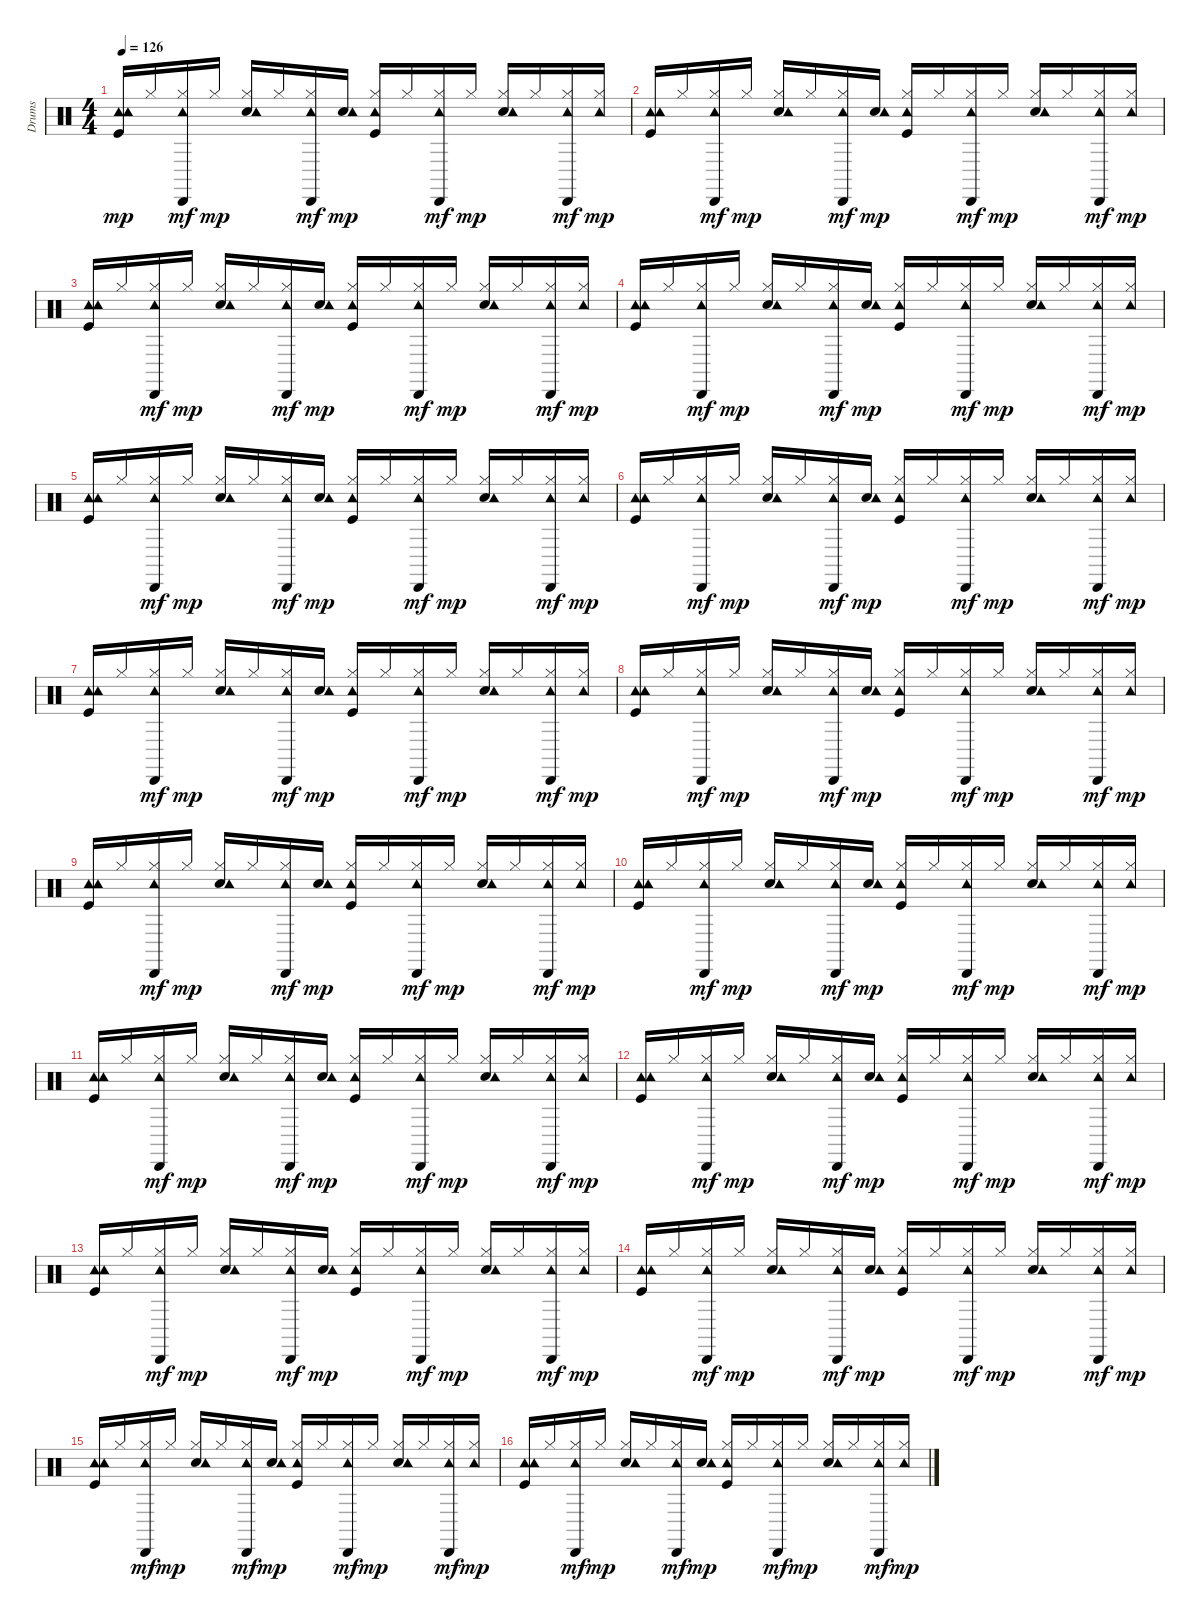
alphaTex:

\track ("Drums" "Drums") {instrument percussion}
\staff {score}
\articulation defaults
\ts (4 4)
\tempo 126
\clef neutral
\ks c
("Kick (hit)" "Tambourine (hit)" "Tambourine (hit)").16{dy mp} "Hi-Hat (closed)".16 ("Hi-Hat (closed)" "Tambourine (hit)" "Cabasa (hit)").16{dy mf} "Hi-Hat (closed)".16{dy mp} ("Snare (hit) 2" "Hi-Hat (closed)" "Tambourine (hit)").16 "Hi-Hat (closed)".16 ("Hi-Hat (closed)" "Tambourine (hit)" "Cabasa (hit)").16{dy mf} ("Snare (hit) 2" "Tambourine (hit)").16{dy mp} ("Kick (hit)" "Hi-Hat (closed)" "Tambourine (hit)").16 "Hi-Hat (closed)".16 ("Hi-Hat (closed)" "Tambourine (hit)" "Cabasa (hit)").16{dy mf} "Hi-Hat (closed)".16{dy mp} ("Snare (hit) 2" "Hi-Hat (closed)" "Tambourine (hit)").16 "Hi-Hat (closed)".16 ("Hi-Hat (closed)" "Tambourine (hit)" "Cabasa (hit)").16{dy mf} ("Hi-Hat (closed)" "Tambourine (hit)").16{dy mp} |
("Kick (hit)" "Tambourine (hit)" "Tambourine (hit)").16 "Hi-Hat (closed)".16 ("Hi-Hat (closed)" "Tambourine (hit)" "Cabasa (hit)").16{dy mf} "Hi-Hat (closed)".16{dy mp} ("Snare (hit) 2" "Hi-Hat (closed)" "Tambourine (hit)").16 "Hi-Hat (closed)".16 ("Hi-Hat (closed)" "Tambourine (hit)" "Cabasa (hit)").16{dy mf} ("Snare (hit) 2" "Tambourine (hit)").16{dy mp} ("Kick (hit)" "Hi-Hat (closed)" "Tambourine (hit)").16 "Hi-Hat (closed)".16 ("Hi-Hat (closed)" "Tambourine (hit)" "Cabasa (hit)").16{dy mf} "Hi-Hat (closed)".16{dy mp} ("Snare (hit) 2" "Hi-Hat (closed)" "Tambourine (hit)").16 "Hi-Hat (closed)".16 ("Hi-Hat (closed)" "Tambourine (hit)" "Cabasa (hit)").16{dy mf} ("Hi-Hat (closed)" "Tambourine (hit)").16{dy mp} |
("Kick (hit)" "Tambourine (hit)" "Tambourine (hit)").16 "Hi-Hat (closed)".16 ("Hi-Hat (closed)" "Tambourine (hit)" "Cabasa (hit)").16{dy mf} "Hi-Hat (closed)".16{dy mp} ("Snare (hit) 2" "Hi-Hat (closed)" "Tambourine (hit)").16 "Hi-Hat (closed)".16 ("Hi-Hat (closed)" "Tambourine (hit)" "Cabasa (hit)").16{dy mf} ("Snare (hit) 2" "Tambourine (hit)").16{dy mp} ("Kick (hit)" "Hi-Hat (closed)" "Tambourine (hit)").16 "Hi-Hat (closed)".16 ("Hi-Hat (closed)" "Tambourine (hit)" "Cabasa (hit)").16{dy mf} "Hi-Hat (closed)".16{dy mp} ("Snare (hit) 2" "Hi-Hat (closed)" "Tambourine (hit)").16 "Hi-Hat (closed)".16 ("Hi-Hat (closed)" "Tambourine (hit)" "Cabasa (hit)").16{dy mf} ("Hi-Hat (closed)" "Tambourine (hit)").16{dy mp} |
("Kick (hit)" "Tambourine (hit)" "Tambourine (hit)").16 "Hi-Hat (closed)".16 ("Hi-Hat (closed)" "Tambourine (hit)" "Cabasa (hit)").16{dy mf} "Hi-Hat (closed)".16{dy mp} ("Snare (hit) 2" "Hi-Hat (closed)" "Tambourine (hit)").16 "Hi-Hat (closed)".16 ("Hi-Hat (closed)" "Tambourine (hit)" "Cabasa (hit)").16{dy mf} ("Snare (hit) 2" "Tambourine (hit)").16{dy mp} ("Kick (hit)" "Hi-Hat (closed)" "Tambourine (hit)").16 "Hi-Hat (closed)".16 ("Hi-Hat (closed)" "Tambourine (hit)" "Cabasa (hit)").16{dy mf} "Hi-Hat (closed)".16{dy mp} ("Snare (hit) 2" "Hi-Hat (closed)" "Tambourine (hit)").16 "Hi-Hat (closed)".16 ("Hi-Hat (closed)" "Tambourine (hit)" "Cabasa (hit)").16{dy mf} ("Hi-Hat (closed)" "Tambourine (hit)").16{dy mp} |
("Kick (hit)" "Tambourine (hit)" "Tambourine (hit)").16 "Hi-Hat (closed)".16 ("Hi-Hat (closed)" "Tambourine (hit)" "Cabasa (hit)").16{dy mf} "Hi-Hat (closed)".16{dy mp} ("Snare (hit) 2" "Hi-Hat (closed)" "Tambourine (hit)").16 "Hi-Hat (closed)".16 ("Hi-Hat (closed)" "Tambourine (hit)" "Cabasa (hit)").16{dy mf} ("Snare (hit) 2" "Tambourine (hit)").16{dy mp} ("Kick (hit)" "Hi-Hat (closed)" "Tambourine (hit)").16 "Hi-Hat (closed)".16 ("Hi-Hat (closed)" "Tambourine (hit)" "Cabasa (hit)").16{dy mf} "Hi-Hat (closed)".16{dy mp} ("Snare (hit) 2" "Hi-Hat (closed)" "Tambourine (hit)").16 "Hi-Hat (closed)".16 ("Hi-Hat (closed)" "Tambourine (hit)" "Cabasa (hit)").16{dy mf} ("Hi-Hat (closed)" "Tambourine (hit)").16{dy mp} |
("Kick (hit)" "Tambourine (hit)" "Tambourine (hit)").16 "Hi-Hat (closed)".16 ("Hi-Hat (closed)" "Tambourine (hit)" "Cabasa (hit)").16{dy mf} "Hi-Hat (closed)".16{dy mp} ("Snare (hit) 2" "Hi-Hat (closed)" "Tambourine (hit)").16 "Hi-Hat (closed)".16 ("Hi-Hat (closed)" "Tambourine (hit)" "Cabasa (hit)").16{dy mf} ("Snare (hit) 2" "Tambourine (hit)").16{dy mp} ("Kick (hit)" "Hi-Hat (closed)" "Tambourine (hit)").16 "Hi-Hat (closed)".16 ("Hi-Hat (closed)" "Tambourine (hit)" "Cabasa (hit)").16{dy mf} "Hi-Hat (closed)".16{dy mp} ("Snare (hit) 2" "Hi-Hat (closed)" "Tambourine (hit)").16 "Hi-Hat (closed)".16 ("Hi-Hat (closed)" "Tambourine (hit)" "Cabasa (hit)").16{dy mf} ("Hi-Hat (closed)" "Tambourine (hit)").16{dy mp} |
("Kick (hit)" "Tambourine (hit)" "Tambourine (hit)").16 "Hi-Hat (closed)".16 ("Hi-Hat (closed)" "Tambourine (hit)" "Cabasa (hit)").16{dy mf} "Hi-Hat (closed)".16{dy mp} ("Snare (hit) 2" "Hi-Hat (closed)" "Tambourine (hit)").16 "Hi-Hat (closed)".16 ("Hi-Hat (closed)" "Tambourine (hit)" "Cabasa (hit)").16{dy mf} ("Snare (hit) 2" "Tambourine (hit)").16{dy mp} ("Kick (hit)" "Hi-Hat (closed)" "Tambourine (hit)").16 "Hi-Hat (closed)".16 ("Hi-Hat (closed)" "Tambourine (hit)" "Cabasa (hit)").16{dy mf} "Hi-Hat (closed)".16{dy mp} ("Snare (hit) 2" "Hi-Hat (closed)" "Tambourine (hit)").16 "Hi-Hat (closed)".16 ("Hi-Hat (closed)" "Tambourine (hit)" "Cabasa (hit)").16{dy mf} ("Hi-Hat (closed)" "Tambourine (hit)").16{dy mp} |
("Kick (hit)" "Tambourine (hit)" "Tambourine (hit)").16 "Hi-Hat (closed)".16 ("Hi-Hat (closed)" "Tambourine (hit)" "Cabasa (hit)").16{dy mf} "Hi-Hat (closed)".16{dy mp} ("Snare (hit) 2" "Hi-Hat (closed)" "Tambourine (hit)").16 "Hi-Hat (closed)".16 ("Hi-Hat (closed)" "Tambourine (hit)" "Cabasa (hit)").16{dy mf} ("Snare (hit) 2" "Tambourine (hit)").16{dy mp} ("Kick (hit)" "Hi-Hat (closed)" "Tambourine (hit)").16 "Hi-Hat (closed)".16 ("Hi-Hat (closed)" "Tambourine (hit)" "Cabasa (hit)").16{dy mf} "Hi-Hat (closed)".16{dy mp} ("Snare (hit) 2" "Hi-Hat (closed)" "Tambourine (hit)").16 "Hi-Hat (closed)".16 ("Hi-Hat (closed)" "Tambourine (hit)" "Cabasa (hit)").16{dy mf} ("Hi-Hat (closed)" "Tambourine (hit)").16{dy mp} |
("Kick (hit)" "Tambourine (hit)" "Tambourine (hit)").16 "Hi-Hat (closed)".16 ("Hi-Hat (closed)" "Tambourine (hit)" "Cabasa (hit)").16{dy mf} "Hi-Hat (closed)".16{dy mp} ("Snare (hit) 2" "Hi-Hat (closed)" "Tambourine (hit)").16 "Hi-Hat (closed)".16 ("Hi-Hat (closed)" "Tambourine (hit)" "Cabasa (hit)").16{dy mf} ("Snare (hit) 2" "Tambourine (hit)").16{dy mp} ("Kick (hit)" "Hi-Hat (closed)" "Tambourine (hit)").16 "Hi-Hat (closed)".16 ("Hi-Hat (closed)" "Tambourine (hit)" "Cabasa (hit)").16{dy mf} "Hi-Hat (closed)".16{dy mp} ("Snare (hit) 2" "Hi-Hat (closed)" "Tambourine (hit)").16 "Hi-Hat (closed)".16 ("Hi-Hat (closed)" "Tambourine (hit)" "Cabasa (hit)").16{dy mf} ("Hi-Hat (closed)" "Tambourine (hit)").16{dy mp} |
("Kick (hit)" "Tambourine (hit)" "Tambourine (hit)").16 "Hi-Hat (closed)".16 ("Hi-Hat (closed)" "Tambourine (hit)" "Cabasa (hit)").16{dy mf} "Hi-Hat (closed)".16{dy mp} ("Snare (hit) 2" "Hi-Hat (closed)" "Tambourine (hit)").16 "Hi-Hat (closed)".16 ("Hi-Hat (closed)" "Tambourine (hit)" "Cabasa (hit)").16{dy mf} ("Snare (hit) 2" "Tambourine (hit)").16{dy mp} ("Kick (hit)" "Hi-Hat (closed)" "Tambourine (hit)").16 "Hi-Hat (closed)".16 ("Hi-Hat (closed)" "Tambourine (hit)" "Cabasa (hit)").16{dy mf} "Hi-Hat (closed)".16{dy mp} ("Snare (hit) 2" "Hi-Hat (closed)" "Tambourine (hit)").16 "Hi-Hat (closed)".16 ("Hi-Hat (closed)" "Tambourine (hit)" "Cabasa (hit)").16{dy mf} ("Hi-Hat (closed)" "Tambourine (hit)").16{dy mp} |
("Kick (hit)" "Tambourine (hit)" "Tambourine (hit)").16 "Hi-Hat (closed)".16 ("Hi-Hat (closed)" "Tambourine (hit)" "Cabasa (hit)").16{dy mf} "Hi-Hat (closed)".16{dy mp} ("Snare (hit) 2" "Hi-Hat (closed)" "Tambourine (hit)").16 "Hi-Hat (closed)".16 ("Hi-Hat (closed)" "Tambourine (hit)" "Cabasa (hit)").16{dy mf} ("Snare (hit) 2" "Tambourine (hit)").16{dy mp} ("Kick (hit)" "Hi-Hat (closed)" "Tambourine (hit)").16 "Hi-Hat (closed)".16 ("Hi-Hat (closed)" "Tambourine (hit)" "Cabasa (hit)").16{dy mf} "Hi-Hat (closed)".16{dy mp} ("Snare (hit) 2" "Hi-Hat (closed)" "Tambourine (hit)").16 "Hi-Hat (closed)".16 ("Hi-Hat (closed)" "Tambourine (hit)" "Cabasa (hit)").16{dy mf} ("Hi-Hat (closed)" "Tambourine (hit)").16{dy mp} |
("Kick (hit)" "Tambourine (hit)" "Tambourine (hit)").16 "Hi-Hat (closed)".16 ("Hi-Hat (closed)" "Tambourine (hit)" "Cabasa (hit)").16{dy mf} "Hi-Hat (closed)".16{dy mp} ("Snare (hit) 2" "Hi-Hat (closed)" "Tambourine (hit)").16 "Hi-Hat (closed)".16 ("Hi-Hat (closed)" "Tambourine (hit)" "Cabasa (hit)").16{dy mf} ("Snare (hit) 2" "Tambourine (hit)").16{dy mp} ("Kick (hit)" "Hi-Hat (closed)" "Tambourine (hit)").16 "Hi-Hat (closed)".16 ("Hi-Hat (closed)" "Tambourine (hit)" "Cabasa (hit)").16{dy mf} "Hi-Hat (closed)".16{dy mp} ("Snare (hit) 2" "Hi-Hat (closed)" "Tambourine (hit)").16 "Hi-Hat (closed)".16 ("Hi-Hat (closed)" "Tambourine (hit)" "Cabasa (hit)").16{dy mf} ("Hi-Hat (closed)" "Tambourine (hit)").16{dy mp} |
("Kick (hit)" "Tambourine (hit)" "Tambourine (hit)").16 "Hi-Hat (closed)".16 ("Hi-Hat (closed)" "Tambourine (hit)" "Cabasa (hit)").16{dy mf} "Hi-Hat (closed)".16{dy mp} ("Snare (hit) 2" "Hi-Hat (closed)" "Tambourine (hit)").16 "Hi-Hat (closed)".16 ("Hi-Hat (closed)" "Tambourine (hit)" "Cabasa (hit)").16{dy mf} ("Snare (hit) 2" "Tambourine (hit)").16{dy mp} ("Kick (hit)" "Hi-Hat (closed)" "Tambourine (hit)").16 "Hi-Hat (closed)".16 ("Hi-Hat (closed)" "Tambourine (hit)" "Cabasa (hit)").16{dy mf} "Hi-Hat (closed)".16{dy mp} ("Snare (hit) 2" "Hi-Hat (closed)" "Tambourine (hit)").16 "Hi-Hat (closed)".16 ("Hi-Hat (closed)" "Tambourine (hit)" "Cabasa (hit)").16{dy mf} ("Hi-Hat (closed)" "Tambourine (hit)").16{dy mp} |
("Kick (hit)" "Tambourine (hit)" "Tambourine (hit)").16 "Hi-Hat (closed)".16 ("Hi-Hat (closed)" "Tambourine (hit)" "Cabasa (hit)").16{dy mf} "Hi-Hat (closed)".16{dy mp} ("Snare (hit) 2" "Hi-Hat (closed)" "Tambourine (hit)").16 "Hi-Hat (closed)".16 ("Hi-Hat (closed)" "Tambourine (hit)" "Cabasa (hit)").16{dy mf} ("Snare (hit) 2" "Tambourine (hit)").16{dy mp} ("Kick (hit)" "Hi-Hat (closed)" "Tambourine (hit)").16 "Hi-Hat (closed)".16 ("Hi-Hat (closed)" "Tambourine (hit)" "Cabasa (hit)").16{dy mf} "Hi-Hat (closed)".16{dy mp} ("Snare (hit) 2" "Hi-Hat (closed)" "Tambourine (hit)").16 "Hi-Hat (closed)".16 ("Hi-Hat (closed)" "Tambourine (hit)" "Cabasa (hit)").16{dy mf} ("Hi-Hat (closed)" "Tambourine (hit)").16{dy mp} |
("Kick (hit)" "Tambourine (hit)" "Tambourine (hit)").16 "Hi-Hat (closed)".16 ("Hi-Hat (closed)" "Tambourine (hit)" "Cabasa (hit)").16{dy mf} "Hi-Hat (closed)".16{dy mp} ("Snare (hit) 2" "Hi-Hat (closed)" "Tambourine (hit)").16 "Hi-Hat (closed)".16 ("Hi-Hat (closed)" "Tambourine (hit)" "Cabasa (hit)").16{dy mf} ("Snare (hit) 2" "Tambourine (hit)").16{dy mp} ("Kick (hit)" "Hi-Hat (closed)" "Tambourine (hit)").16 "Hi-Hat (closed)".16 ("Hi-Hat (closed)" "Tambourine (hit)" "Cabasa (hit)").16{dy mf} "Hi-Hat (closed)".16{dy mp} ("Snare (hit) 2" "Hi-Hat (closed)" "Tambourine (hit)").16 "Hi-Hat (closed)".16 ("Hi-Hat (closed)" "Tambourine (hit)" "Cabasa (hit)").16{dy mf} ("Hi-Hat (closed)" "Tambourine (hit)").16{dy mp} |
("Kick (hit)" "Tambourine (hit)" "Tambourine (hit)").16 "Hi-Hat (closed)".16 ("Hi-Hat (closed)" "Tambourine (hit)" "Cabasa (hit)").16{dy mf} "Hi-Hat (closed)".16{dy mp} ("Snare (hit) 2" "Hi-Hat (closed)" "Tambourine (hit)").16 "Hi-Hat (closed)".16 ("Hi-Hat (closed)" "Tambourine (hit)" "Cabasa (hit)").16{dy mf} ("Snare (hit) 2" "Tambourine (hit)").16{dy mp} ("Kick (hit)" "Hi-Hat (closed)" "Tambourine (hit)").16 "Hi-Hat (closed)".16 ("Hi-Hat (closed)" "Tambourine (hit)" "Cabasa (hit)").16{dy mf} "Hi-Hat (closed)".16{dy mp} ("Snare (hit) 2" "Hi-Hat (closed)" "Tambourine (hit)").16 "Hi-Hat (closed)".16 ("Hi-Hat (closed)" "Tambourine (hit)" "Cabasa (hit)").16{dy mf} ("Hi-Hat (closed)" "Tambourine (hit)").16{dy mp}
